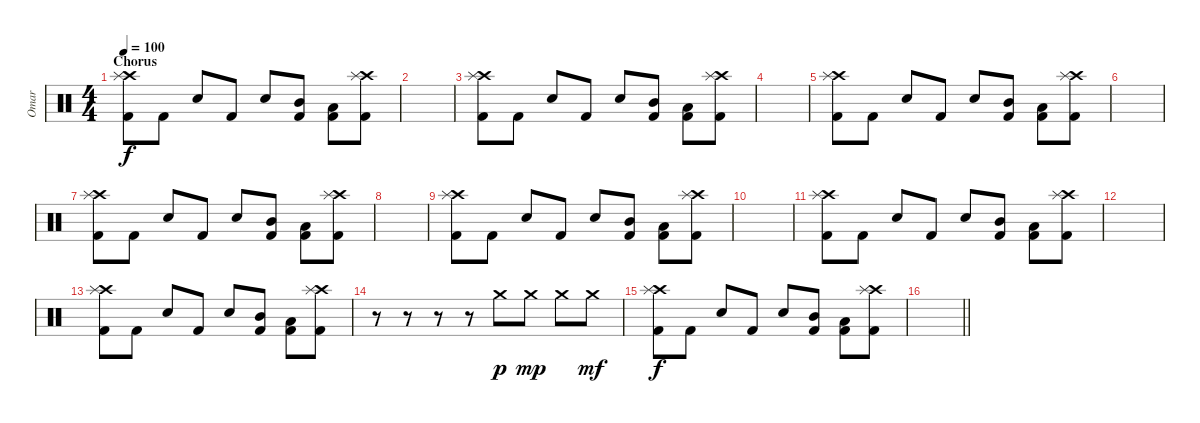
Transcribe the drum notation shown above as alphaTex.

\track ("Omar" "Omar") {instrument percussion}
\staff {score}
\articulation defaults
\ts (4 4)
\section ("" "Chorus")
\tempo 100
\clef neutral
\ks c
("Crash high (hit)" "Splash (hit)" "Kick (hit) 2").8{dy f} "Kick (hit) 2".8 "Snare (hit) 2".8 "Kick (hit) 2".8 "Snare (hit) 2".8 ("Mid Tom (hit)" "Kick (hit) 2").8 ("Low Tom (hit)" "Kick (hit) 2").8 ("Crash high (hit)" "Splash (hit)" "Kick (hit) 2").8 |
|
("Crash high (hit)" "Splash (hit)" "Kick (hit) 2").8 "Kick (hit) 2".8 "Snare (hit) 2".8 "Kick (hit) 2".8 "Snare (hit) 2".8 ("Mid Tom (hit)" "Kick (hit) 2").8 ("Low Tom (hit)" "Kick (hit) 2").8 ("Crash high (hit)" "Splash (hit)" "Kick (hit) 2").8 |
|
("Crash high (hit)" "Splash (hit)" "Kick (hit) 2").8 "Kick (hit) 2".8 "Snare (hit) 2".8 "Kick (hit) 2".8 "Snare (hit) 2".8 ("Mid Tom (hit)" "Kick (hit) 2").8 ("Low Tom (hit)" "Kick (hit) 2").8 ("Crash high (hit)" "Splash (hit)" "Kick (hit) 2").8 |
|
("Crash high (hit)" "Splash (hit)" "Kick (hit) 2").8 "Kick (hit) 2".8 "Snare (hit) 2".8 "Kick (hit) 2".8 "Snare (hit) 2".8 ("Mid Tom (hit)" "Kick (hit) 2").8 ("Low Tom (hit)" "Kick (hit) 2").8 ("Crash high (hit)" "Splash (hit)" "Kick (hit) 2").8 |
|
("Crash high (hit)" "Splash (hit)" "Kick (hit) 2").8 "Kick (hit) 2".8 "Snare (hit) 2".8 "Kick (hit) 2".8 "Snare (hit) 2".8 ("Mid Tom (hit)" "Kick (hit) 2").8 ("Low Tom (hit)" "Kick (hit) 2").8 ("Crash high (hit)" "Splash (hit)" "Kick (hit) 2").8 |
|
("Crash high (hit)" "Splash (hit)" "Kick (hit) 2").8 "Kick (hit) 2".8 "Snare (hit) 2".8 "Kick (hit) 2".8 "Snare (hit) 2".8 ("Mid Tom (hit)" "Kick (hit) 2").8 ("Low Tom (hit)" "Kick (hit) 2").8 ("Crash high (hit)" "Splash (hit)" "Kick (hit) 2").8 |
|
("Crash high (hit)" "Splash (hit)" "Kick (hit) 2").8 "Kick (hit) 2".8 "Snare (hit) 2".8 "Kick (hit) 2".8 "Snare (hit) 2".8 ("Mid Tom (hit)" "Kick (hit) 2").8 ("Low Tom (hit)" "Kick (hit) 2").8 ("Crash high (hit)" "Splash (hit)" "Kick (hit) 2").8 |
r.8 r.8 r.8 r.8 "Crash medium (hit)".8{dy p} "Crash medium (hit)".8{dy mp} "Crash medium (hit)".8 "Crash medium (hit)".8{dy mf} |
("Crash high (hit)" "Splash (hit)" "Kick (hit) 2").8{dy f} "Kick (hit) 2".8 "Snare (hit) 2".8 "Kick (hit) 2".8 "Snare (hit) 2".8 ("Mid Tom (hit)" "Kick (hit) 2").8 ("Low Tom (hit)" "Kick (hit) 2").8 ("Crash high (hit)" "Splash (hit)" "Kick (hit) 2").8 |
\barLineRight lightlight
